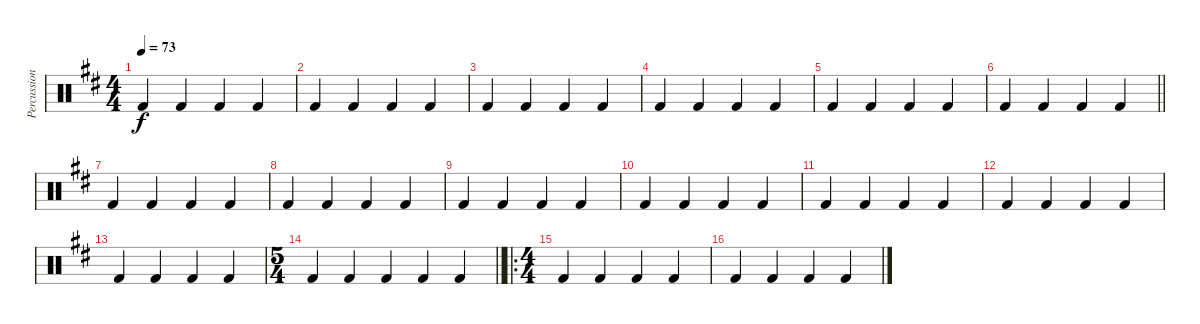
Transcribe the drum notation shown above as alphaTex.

\track ("Percussion" "Percussion") {instrument percussion}
\staff {score}
\articulation defaults
\ts (4 4)
\tempo 73
\clef neutral
\ks d "Kick (hit) 2".4{dy f} "Kick (hit) 2".4 "Kick (hit) 2".4 "Kick (hit) 2".4
|
"Kick (hit) 2".4 "Kick (hit) 2".4 "Kick (hit) 2".4 "Kick (hit) 2".4 |
"Kick (hit) 2".4 "Kick (hit) 2".4 "Kick (hit) 2".4 "Kick (hit) 2".4 |
"Kick (hit) 2".4 "Kick (hit) 2".4 "Kick (hit) 2".4 "Kick (hit) 2".4 |
"Kick (hit) 2".4 "Kick (hit) 2".4 "Kick (hit) 2".4 "Kick (hit) 2".4 |
\barLineRight lightlight "Kick (hit) 2".4 "Kick (hit) 2".4 "Kick (hit) 2".4 "Kick (hit) 2".4
|
"Kick (hit) 2".4 "Kick (hit) 2".4 "Kick (hit) 2".4 "Kick (hit) 2".4 |
"Kick (hit) 2".4 "Kick (hit) 2".4 "Kick (hit) 2".4 "Kick (hit) 2".4 |
"Kick (hit) 2".4 "Kick (hit) 2".4 "Kick (hit) 2".4 "Kick (hit) 2".4 |
"Kick (hit) 2".4 "Kick (hit) 2".4 "Kick (hit) 2".4 "Kick (hit) 2".4 |
"Kick (hit) 2".4 "Kick (hit) 2".4 "Kick (hit) 2".4 "Kick (hit) 2".4 |
"Kick (hit) 2".4 "Kick (hit) 2".4 "Kick (hit) 2".4 "Kick (hit) 2".4 |
"Kick (hit) 2".4 "Kick (hit) 2".4 "Kick (hit) 2".4 "Kick (hit) 2".4 |
\ts (5 4)
\barLineRight lightlight "Kick (hit) 2".4 "Kick (hit) 2".4 "Kick (hit) 2".4 "Kick (hit) 2".4 "Kick (hit) 2".4
|
\ro
\ts (4 4)
"Kick (hit) 2".4 "Kick (hit) 2".4 "Kick (hit) 2".4 "Kick (hit) 2".4 |
"Kick (hit) 2".4 "Kick (hit) 2".4 "Kick (hit) 2".4 "Kick (hit) 2".4
